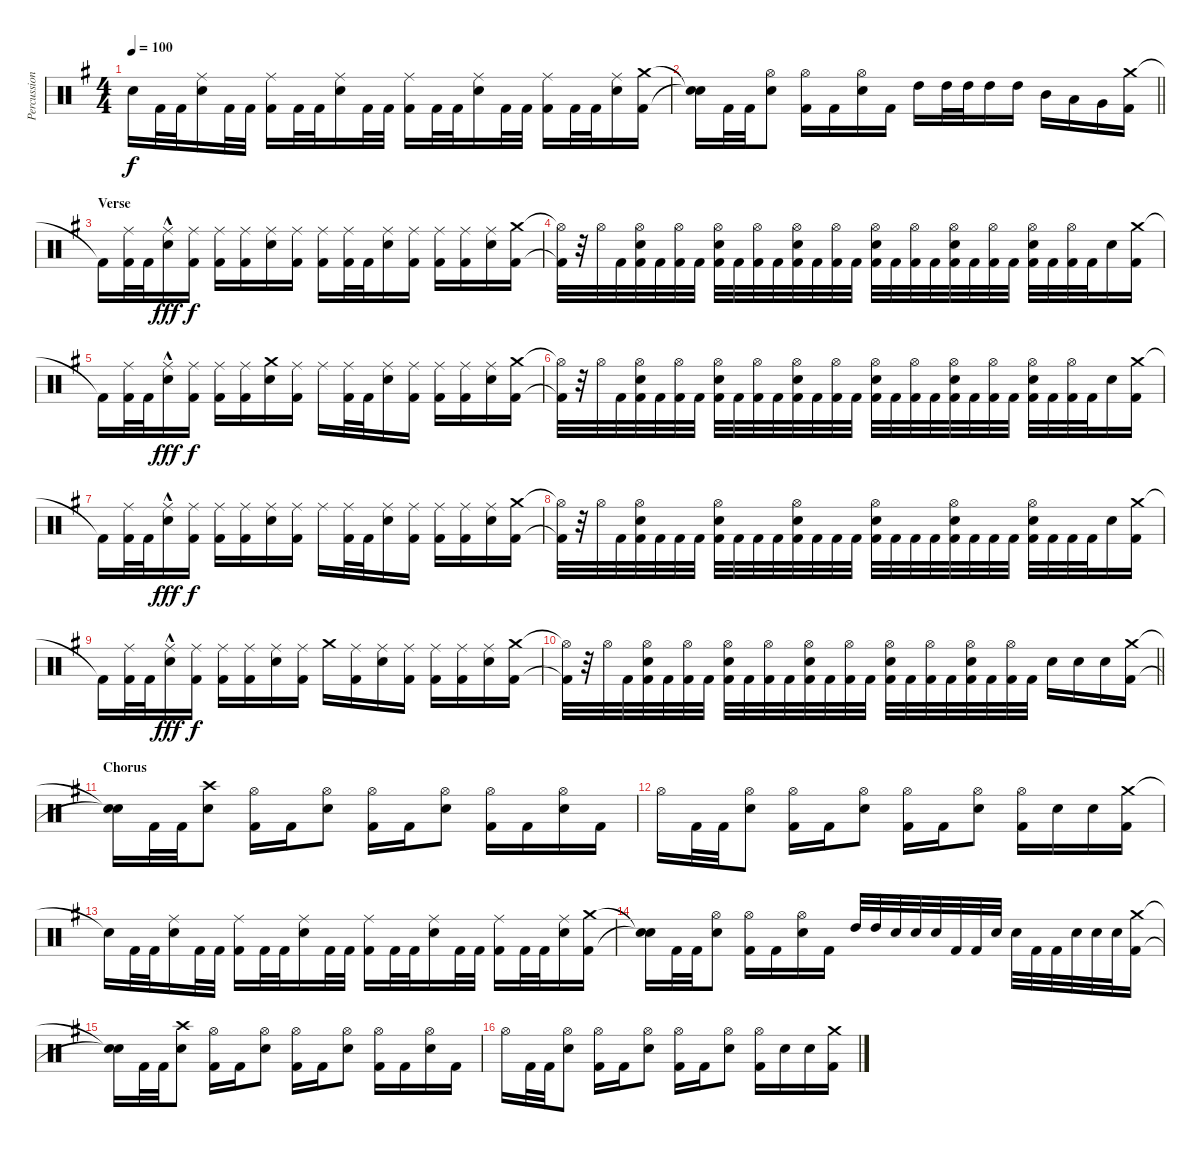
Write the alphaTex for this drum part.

\track ("Percussion" "Percussion") {instrument percussion}
\staff {score}
\articulation defaults
\ts (4 4)
\tempo 100
\clef neutral
\ks eminor "Snare (hit)"{t}.16{dy f} "Kick (hit) 2".32 "Kick (hit) 2".32
("Ride (middle)" "Snare (hit) 2").16 "Kick (hit) 2".32 "Kick (hit) 2".32 ("Ride (middle)" "Kick (hit) 2").16 "Kick (hit) 2".32 "Kick (hit) 2".32 ("Ride (middle)" "Snare (hit) 2").16 "Kick (hit) 2".32 "Kick (hit) 2".32 ("Ride (middle)" "Kick (hit) 2").16 "Kick (hit) 2".32 "Kick (hit) 2".32 ("Ride (middle)" "Snare (hit) 2").16 "Kick (hit) 2".32 "Kick (hit) 2".32 ("Ride (middle)" "Kick (hit) 2").16 "Kick (hit) 2".32 "Kick (hit) 2".32 ("Ride (middle)" "Snare (hit) 2").16 ("Crash medium (hit)" "Kick (hit) 2").16 |
\barLineRight lightlight
("Snare (hit)"{t} "Snare (hit)"{t}).16 "Kick (hit) 2".32 "Kick (hit) 2".32 ("Hi-Hat (open)" "Snare (hit) 2").8 ("Hi-Hat (open)" "Kick (hit) 2").16 "Kick (hit) 2".16 ("Hi-Hat (open)" "Snare (hit) 2").16 "Kick (hit) 2".16 "High Tom (hit)".16 "High Tom (hit)".32 "High Tom (hit)".32 "High Tom (hit)".16 "High Tom (hit)".16 "Mid Tom (hit)".16 "Low Tom (hit)".16 "Very Low Tom (hit)".16 ("Crash medium (hit)" "Kick (hit) 2").16 |
\section ("" "Verse")
"Kick (hit) 2"{t}.16 ("Ride (middle)" "Kick (hit) 2").32 "Kick (hit) 2".32 ("Ride (middle)"{hac} "Snare (hit) 2").16{dy fff} ("Ride (middle)" "Kick (hit) 2").16{dy f} ("Ride (middle)" "Kick (hit) 2").16 ("Ride (middle)" "Kick (hit) 2").16 ("Ride (middle)" "Snare (hit) 2").16 ("Ride (middle)" "Kick (hit) 2").16 ("Ride (middle)" "Kick (hit) 2").16 ("Ride (middle)" "Kick (hit) 2").32 "Kick (hit) 2".32 ("Ride (middle)" "Snare (hit) 2").16 ("Ride (middle)" "Kick (hit) 2").16 ("Ride (middle)" "Kick (hit) 2").16 ("Ride (middle)" "Kick (hit) 2").16 ("Ride (middle)" "Snare (hit) 2").16 ("Crash medium (hit)" "Kick (hit) 2").16 |
("Hi-Hat (open)"{t} "Kick (hit) 2"{t}).32 r.32 "Hi-Hat (open)".32 "Kick (hit) 2".32 ("Hi-Hat (open)" "Snare (hit) 2" "Kick (hit) 2").32 "Kick (hit) 2".32 ("Hi-Hat (open)" "Kick (hit) 2").32 "Kick (hit) 2".32 ("Hi-Hat (open)" "Snare (hit) 2" "Kick (hit) 2").32 "Kick (hit) 2".32 ("Hi-Hat (open)" "Kick (hit) 2").32 "Kick (hit) 2".32 ("Hi-Hat (open)" "Snare (hit) 2" "Kick (hit) 2").32 "Kick (hit) 2".32 ("Hi-Hat (open)" "Kick (hit) 2").32 "Kick (hit) 2".32 ("Hi-Hat (open)" "Snare (hit) 2" "Kick (hit) 2").32 "Kick (hit) 2".32 ("Hi-Hat (open)" "Kick (hit) 2").32 "Kick (hit) 2".32 ("Hi-Hat (open)" "Snare (hit) 2" "Kick (hit) 2").32 "Kick (hit) 2".32 ("Hi-Hat (open)" "Kick (hit) 2").32 "Kick (hit) 2".32 ("Hi-Hat (open)" "Snare (hit) 2" "Kick (hit) 2").32 "Kick (hit) 2".32 ("Hi-Hat (open)" "Kick (hit) 2").32 "Kick (hit) 2".32 "Snare (hit) 2".16 ("Crash medium (hit)" "Kick (hit) 2").16 |
"Kick (hit) 2"{t}.16 ("Ride (middle)" "Kick (hit) 2").32 "Kick (hit) 2".32 ("Ride (middle)"{hac} "Snare (hit) 2").16{dy fff} ("Ride (middle)" "Kick (hit) 2").16{dy f} ("Ride (middle)" "Kick (hit) 2").16 ("Ride (middle)" "Kick (hit) 2").16 ("Crash medium (hit)" "Snare (hit) 2").16 ("Ride (middle)" "Kick (hit) 2").16 "Ride (middle)".16 ("Ride (middle)" "Kick (hit) 2").32 "Kick (hit) 2".32 ("Ride (middle)" "Snare (hit) 2").16 ("Ride (middle)" "Kick (hit) 2").16 ("Ride (middle)" "Kick (hit) 2").16 ("Ride (middle)" "Kick (hit) 2").16 ("Ride (middle)" "Snare (hit) 2").16 ("Crash medium (hit)" "Kick (hit) 2").16 |
("Hi-Hat (open)"{t} "Kick (hit) 2"{t}).32 r.32 "Hi-Hat (open)".32 "Kick (hit) 2".32 ("Hi-Hat (open)" "Snare (hit) 2" "Kick (hit) 2").32 "Kick (hit) 2".32 ("Hi-Hat (open)" "Kick (hit) 2").32 "Kick (hit) 2".32 ("Hi-Hat (open)" "Snare (hit) 2" "Kick (hit) 2").32 "Kick (hit) 2".32 ("Hi-Hat (open)" "Kick (hit) 2").32 "Kick (hit) 2".32 ("Hi-Hat (open)" "Snare (hit) 2" "Kick (hit) 2").32 "Kick (hit) 2".32 ("Hi-Hat (open)" "Kick (hit) 2").32 "Kick (hit) 2".32 ("Hi-Hat (open)" "Snare (hit) 2" "Kick (hit) 2").32 "Kick (hit) 2".32 ("Hi-Hat (open)" "Kick (hit) 2").32 "Kick (hit) 2".32 ("Hi-Hat (open)" "Snare (hit) 2" "Kick (hit) 2").32 "Kick (hit) 2".32 ("Hi-Hat (open)" "Kick (hit) 2").32 "Kick (hit) 2".32 ("Hi-Hat (open)" "Snare (hit) 2" "Kick (hit) 2").32 "Kick (hit) 2".32 ("Hi-Hat (open)" "Kick (hit) 2").32 "Kick (hit) 2".32 "Snare (hit) 2".16 ("Crash medium (hit)" "Kick (hit) 2").16 |
"Kick (hit) 2"{t}.16 ("Ride (middle)" "Kick (hit) 2").32 "Kick (hit) 2".32 ("Ride (middle)"{hac} "Snare (hit) 2").16{dy fff} ("Ride (middle)" "Kick (hit) 2").16{dy f} ("Ride (middle)" "Kick (hit) 2").16 ("Ride (middle)" "Kick (hit) 2").16 ("Ride (middle)" "Snare (hit) 2").16 ("Ride (middle)" "Kick (hit) 2").16 "Ride (middle)".16 ("Ride (middle)" "Kick (hit) 2").32 "Kick (hit) 2".32 ("Ride (middle)" "Snare (hit) 2").16 ("Ride (middle)" "Kick (hit) 2").16 ("Ride (middle)" "Kick (hit) 2").16 ("Ride (middle)" "Kick (hit) 2").16 ("Ride (middle)" "Snare (hit) 2").16 ("Crash medium (hit)" "Kick (hit) 2").16 |
("Hi-Hat (open)"{t} "Kick (hit) 2"{t}).32 r.32 "Hi-Hat (open)".32 "Kick (hit) 2".32 ("Hi-Hat (open)" "Snare (hit) 2" "Kick (hit) 2").32 "Kick (hit) 2".32 "Kick (hit) 2".32 "Kick (hit) 2".32 ("Hi-Hat (open)" "Snare (hit) 2" "Kick (hit) 2").32 "Kick (hit) 2".32 "Kick (hit) 2".32 "Kick (hit) 2".32 ("Hi-Hat (open)" "Snare (hit) 2" "Kick (hit) 2").32 "Kick (hit) 2".32 "Kick (hit) 2".32 "Kick (hit) 2".32 ("Hi-Hat (open)" "Snare (hit) 2" "Kick (hit) 2").32 "Kick (hit) 2".32 "Kick (hit) 2".32 "Kick (hit) 2".32 ("Hi-Hat (open)" "Snare (hit) 2" "Kick (hit) 2").32 "Kick (hit) 2".32 "Kick (hit) 2".32 "Kick (hit) 2".32 ("Hi-Hat (open)" "Snare (hit) 2" "Kick (hit) 2").32 "Kick (hit) 2".32 "Kick (hit) 2".32 "Kick (hit) 2".32 "Snare (hit) 2".16 ("Crash medium (hit)" "Kick (hit) 2").16 |
"Kick (hit) 2"{t}.16 ("Ride (middle)" "Kick (hit) 2").32 "Kick (hit) 2".32 ("Ride (middle)"{hac} "Snare (hit) 2").16{dy fff} ("Ride (middle)" "Kick (hit) 2").16{dy f} ("Ride (middle)" "Kick (hit) 2").16 ("Ride (middle)" "Kick (hit) 2").16 ("Ride (middle)" "Snare (hit) 2").16 ("Ride (middle)" "Kick (hit) 2").16 "Crash medium (hit)".16 ("Ride (middle)" "Kick (hit) 2").16 ("Ride (middle)" "Snare (hit) 2").16 ("Ride (middle)" "Kick (hit) 2").16 ("Ride (middle)" "Kick (hit) 2").16 ("Ride (middle)" "Kick (hit) 2").16 ("Ride (middle)" "Snare (hit) 2").16 ("Crash medium (hit)" "Kick (hit) 2").16 |
\barLineRight lightlight
("Hi-Hat (open)"{t} "Kick (hit) 2"{t}).32 r.32 "Hi-Hat (open)".32 "Kick (hit) 2".32 ("Hi-Hat (open)" "Snare (hit) 2" "Kick (hit) 2").32 "Kick (hit) 2".32 ("Hi-Hat (open)" "Kick (hit) 2").32 "Kick (hit) 2".32 ("Hi-Hat (open)" "Snare (hit) 2" "Kick (hit) 2").32 "Kick (hit) 2".32 ("Hi-Hat (open)" "Kick (hit) 2").32 "Kick (hit) 2".32 ("Hi-Hat (open)" "Snare (hit) 2" "Kick (hit) 2").32 "Kick (hit) 2".32 ("Hi-Hat (open)" "Kick (hit) 2").32 "Kick (hit) 2".32 ("Hi-Hat (open)" "Snare (hit) 2" "Kick (hit) 2").32 "Kick (hit) 2".32 ("Hi-Hat (open)" "Kick (hit) 2").32 "Kick (hit) 2".32 ("Hi-Hat (open)" "Snare (hit) 2" "Kick (hit) 2").32 "Kick (hit) 2".32 ("Hi-Hat (open)" "Kick (hit) 2").32 "Kick (hit) 2".32 "Snare (hit) 2".16 "Snare (hit) 2".16 "Snare (hit) 2".16 ("Crash medium (hit)" "Kick (hit) 2").16 |
\section ("" "Chorus")
("Snare (hit)"{t} "Snare (hit)"{t}).16 "Kick (hit) 2".32 "Kick (hit) 2".32 ("Crash high (hit)" "Snare (hit) 2").8 ("Hi-Hat (open)" "Kick (hit) 2").16 "Kick (hit) 2".16 ("Hi-Hat (open)" "Snare (hit) 2").8 ("Hi-Hat (open)" "Kick (hit) 2").16 "Kick (hit) 2".16 ("Hi-Hat (open)" "Snare (hit) 2").8 ("Hi-Hat (open)" "Kick (hit) 2").16 "Kick (hit) 2".16 ("Hi-Hat (open)" "Snare (hit) 2").16 "Kick (hit) 2".16 |
"Hi-Hat (open)".16 "Kick (hit) 2".32 "Kick (hit) 2".32 ("Hi-Hat (open)" "Snare (hit) 2").8 ("Hi-Hat (open)" "Kick (hit) 2").16 "Kick (hit) 2".16 ("Hi-Hat (open)" "Snare (hit) 2").8 ("Hi-Hat (open)" "Kick (hit) 2").16 "Kick (hit) 2".16 ("Hi-Hat (open)" "Snare (hit) 2").8 ("Hi-Hat (open)" "Kick (hit) 2").16 "Snare (hit) 2".16 "Snare (hit) 2".16 ("Crash medium (hit)" "Kick (hit) 2").16 |
"Snare (hit)"{t}.16 "Kick (hit) 2".32 "Kick (hit) 2".32 ("Ride (middle)" "Snare (hit) 2").16 "Kick (hit) 2".32 "Kick (hit) 2".32 ("Ride (middle)" "Kick (hit) 2").16 "Kick (hit) 2".32 "Kick (hit) 2".32 ("Ride (middle)" "Snare (hit) 2").16 "Kick (hit) 2".32 "Kick (hit) 2".32 ("Ride (middle)" "Kick (hit) 2").16 "Kick (hit) 2".32 "Kick (hit) 2".32 ("Ride (middle)" "Snare (hit) 2").16 "Kick (hit) 2".32 "Kick (hit) 2".32 ("Ride (middle)" "Kick (hit) 2").16 "Kick (hit) 2".32 "Kick (hit) 2".32 ("Ride (middle)" "Snare (hit) 2").16 ("Crash medium (hit)" "Kick (hit) 2").16 |
("Snare (hit)"{t} "Snare (hit)"{t}).16 "Kick (hit) 2".32 "Kick (hit) 2".32 ("Hi-Hat (open)" "Snare (hit) 2").8 ("Hi-Hat (open)" "Kick (hit) 2").16 "Kick (hit) 2".16 ("Hi-Hat (open)" "Snare (hit) 2").16 "Kick (hit) 2".16 "High Tom (hit)".32 "High Tom (hit)".32 "Snare (hit) 2".32 "Snare (hit) 2".32 "Snare (hit) 2".32 "Kick (hit) 2".32 "Kick (hit) 2".32 "Snare (hit) 2".32 "Snare (hit) 2".32 "Kick (hit) 2".32 "Kick (hit) 2".32 "Snare (hit) 2".32 "Snare (hit) 2".32 "Snare (hit) 2".32 ("Crash medium (hit)" "Kick (hit) 2").16 |
("Snare (hit)"{t} "Snare (hit)"{t}).16 "Kick (hit) 2".32 "Kick (hit) 2".32 ("Crash high (hit)" "Snare (hit) 2").8 ("Hi-Hat (open)" "Kick (hit) 2").16 "Kick (hit) 2".16 ("Hi-Hat (open)" "Snare (hit) 2").8 ("Hi-Hat (open)" "Kick (hit) 2").16 "Kick (hit) 2".16 ("Hi-Hat (open)" "Snare (hit) 2").8 ("Hi-Hat (open)" "Kick (hit) 2").16 "Kick (hit) 2".16 ("Hi-Hat (open)" "Snare (hit) 2").16 "Kick (hit) 2".16 |
"Hi-Hat (open)".16 "Kick (hit) 2".32 "Kick (hit) 2".32 ("Hi-Hat (open)" "Snare (hit) 2").8 ("Hi-Hat (open)" "Kick (hit) 2").16 "Kick (hit) 2".16 ("Hi-Hat (open)" "Snare (hit) 2").8 ("Hi-Hat (open)" "Kick (hit) 2").16 "Kick (hit) 2".16 ("Hi-Hat (open)" "Snare (hit) 2").8 ("Hi-Hat (open)" "Kick (hit) 2").16 "Snare (hit) 2".16 "Snare (hit) 2".16 ("Crash medium (hit)" "Kick (hit) 2").16
